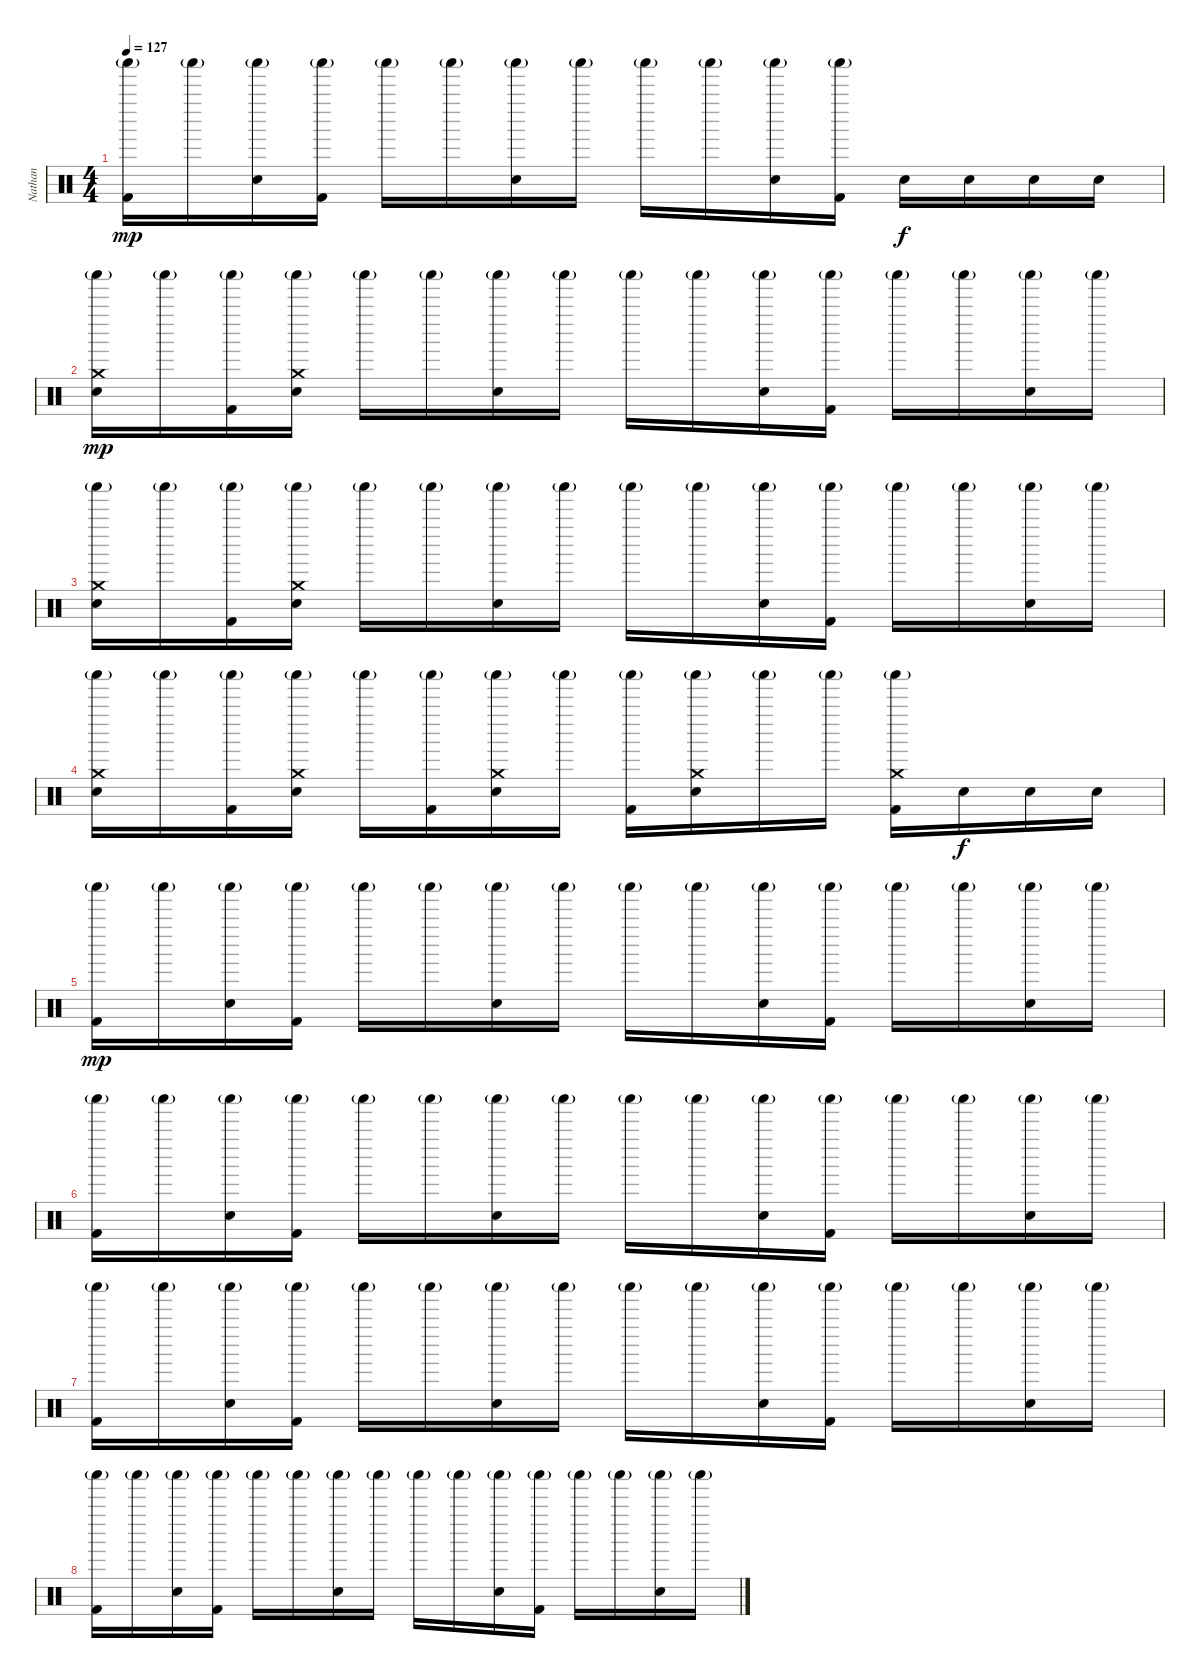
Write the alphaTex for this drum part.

\track ("Nathan" "Nathan") {instrument percussion}
\staff {score}
\articulation defaults
\ts (4 4)
\tempo 127
\clef neutral
\ks c
("Shaker (hit)"{g} "Kick (hit) 2").16{dy mp} "Shaker (hit)"{g}.16 ("Shaker (hit)"{g} "Electric Snare (hit)").16 ("Shaker (hit)"{g} "Kick (hit) 2").16 "Shaker (hit)"{g}.16 "Shaker (hit)"{g}.16 ("Shaker (hit)"{g} "Electric Snare (hit)").16 "Shaker (hit)"{g}.16 "Shaker (hit)"{g}.16 "Shaker (hit)"{g}.16 ("Shaker (hit)"{g} "Electric Snare (hit)").16 ("Shaker (hit)"{g} "Kick (hit) 2").16 "Electric Snare (hit)".16{dy f} "Electric Snare (hit)".16 "Electric Snare (hit)".16 "Electric Snare (hit)".16 |
("Crash medium (hit)" "Shaker (hit)"{g} "Electric Snare (hit)").16{dy mp} "Shaker (hit)"{g}.16 ("Shaker (hit)"{g} "Kick (hit) 2").16 ("Crash medium (hit)" "Shaker (hit)"{g} "Electric Snare (hit)").16 "Shaker (hit)"{g}.16 "Shaker (hit)"{g}.16 ("Shaker (hit)"{g} "Electric Snare (hit)").16 "Shaker (hit)"{g}.16 "Shaker (hit)"{g}.16 "Shaker (hit)"{g}.16 ("Shaker (hit)"{g} "Electric Snare (hit)").16 ("Shaker (hit)"{g} "Kick (hit) 2").16 "Shaker (hit)"{g}.16 "Shaker (hit)"{g}.16 ("Shaker (hit)"{g} "Electric Snare (hit)").16 "Shaker (hit)"{g}.16 |
("Crash medium (hit)" "Shaker (hit)"{g} "Electric Snare (hit)").16 "Shaker (hit)"{g}.16 ("Shaker (hit)"{g} "Kick (hit) 2").16 ("Crash medium (hit)" "Shaker (hit)"{g} "Electric Snare (hit)").16 "Shaker (hit)"{g}.16 "Shaker (hit)"{g}.16 ("Shaker (hit)"{g} "Electric Snare (hit)").16 "Shaker (hit)"{g}.16 "Shaker (hit)"{g}.16 "Shaker (hit)"{g}.16 ("Shaker (hit)"{g} "Electric Snare (hit)").16 ("Shaker (hit)"{g} "Kick (hit) 2").16 "Shaker (hit)"{g}.16 "Shaker (hit)"{g}.16 ("Shaker (hit)"{g} "Electric Snare (hit)").16 "Shaker (hit)"{g}.16 |
("Crash medium (hit)" "Shaker (hit)"{g} "Electric Snare (hit)").16 "Shaker (hit)"{g}.16 ("Shaker (hit)"{g} "Kick (hit) 2").16 ("Crash medium (hit)" "Shaker (hit)"{g} "Electric Snare (hit)").16 "Shaker (hit)"{g}.16 ("Shaker (hit)"{g} "Kick (hit) 2").16 ("Crash medium (hit)" "Shaker (hit)"{g} "Electric Snare (hit)").16 "Shaker (hit)"{g}.16 ("Shaker (hit)"{g} "Kick (hit) 2").16 ("Crash medium (hit)" "Shaker (hit)"{g} "Electric Snare (hit)").16 "Shaker (hit)"{g}.16 "Shaker (hit)"{g}.16 ("Crash medium (hit)" "Shaker (hit)"{g} "Kick (hit) 2").16 "Electric Snare (hit)".16{dy f} "Electric Snare (hit)".16 "Electric Snare (hit)".16 |
("Shaker (hit)"{g} "Kick (hit) 2").16{dy mp} "Shaker (hit)"{g}.16 ("Shaker (hit)"{g} "Electric Snare (hit)").16 ("Shaker (hit)"{g} "Kick (hit) 2").16 "Shaker (hit)"{g}.16 "Shaker (hit)"{g}.16 ("Shaker (hit)"{g} "Electric Snare (hit)").16 "Shaker (hit)"{g}.16 "Shaker (hit)"{g}.16 "Shaker (hit)"{g}.16 ("Shaker (hit)"{g} "Electric Snare (hit)").16 ("Shaker (hit)"{g} "Kick (hit) 2").16 "Shaker (hit)"{g}.16 "Shaker (hit)"{g}.16 ("Shaker (hit)"{g} "Electric Snare (hit)").16 "Shaker (hit)"{g}.16 |
("Shaker (hit)"{g} "Kick (hit) 2").16 "Shaker (hit)"{g}.16 ("Shaker (hit)"{g} "Electric Snare (hit)").16 ("Shaker (hit)"{g} "Kick (hit) 2").16 "Shaker (hit)"{g}.16 "Shaker (hit)"{g}.16 ("Shaker (hit)"{g} "Electric Snare (hit)").16 "Shaker (hit)"{g}.16 "Shaker (hit)"{g}.16 "Shaker (hit)"{g}.16 ("Shaker (hit)"{g} "Electric Snare (hit)").16 ("Shaker (hit)"{g} "Kick (hit) 2").16 "Shaker (hit)"{g}.16 "Shaker (hit)"{g}.16 ("Shaker (hit)"{g} "Electric Snare (hit)").16 "Shaker (hit)"{g}.16 |
("Shaker (hit)"{g} "Kick (hit) 2").16 "Shaker (hit)"{g}.16 ("Shaker (hit)"{g} "Electric Snare (hit)").16 ("Shaker (hit)"{g} "Kick (hit) 2").16 "Shaker (hit)"{g}.16 "Shaker (hit)"{g}.16 ("Shaker (hit)"{g} "Electric Snare (hit)").16 "Shaker (hit)"{g}.16 "Shaker (hit)"{g}.16 "Shaker (hit)"{g}.16 ("Shaker (hit)"{g} "Electric Snare (hit)").16 ("Shaker (hit)"{g} "Kick (hit) 2").16 "Shaker (hit)"{g}.16 "Shaker (hit)"{g}.16 ("Shaker (hit)"{g} "Electric Snare (hit)").16 "Shaker (hit)"{g}.16 |
("Shaker (hit)"{g} "Kick (hit) 2").16 "Shaker (hit)"{g}.16 ("Shaker (hit)"{g} "Electric Snare (hit)").16 ("Shaker (hit)"{g} "Kick (hit) 2").16 "Shaker (hit)"{g}.16 "Shaker (hit)"{g}.16 ("Shaker (hit)"{g} "Electric Snare (hit)").16 "Shaker (hit)"{g}.16 "Shaker (hit)"{g}.16 "Shaker (hit)"{g}.16 ("Shaker (hit)"{g} "Electric Snare (hit)").16 ("Shaker (hit)"{g} "Kick (hit) 2").16 "Shaker (hit)"{g}.16 "Shaker (hit)"{g}.16 ("Shaker (hit)"{g} "Electric Snare (hit)").16 "Shaker (hit)"{g}.16
